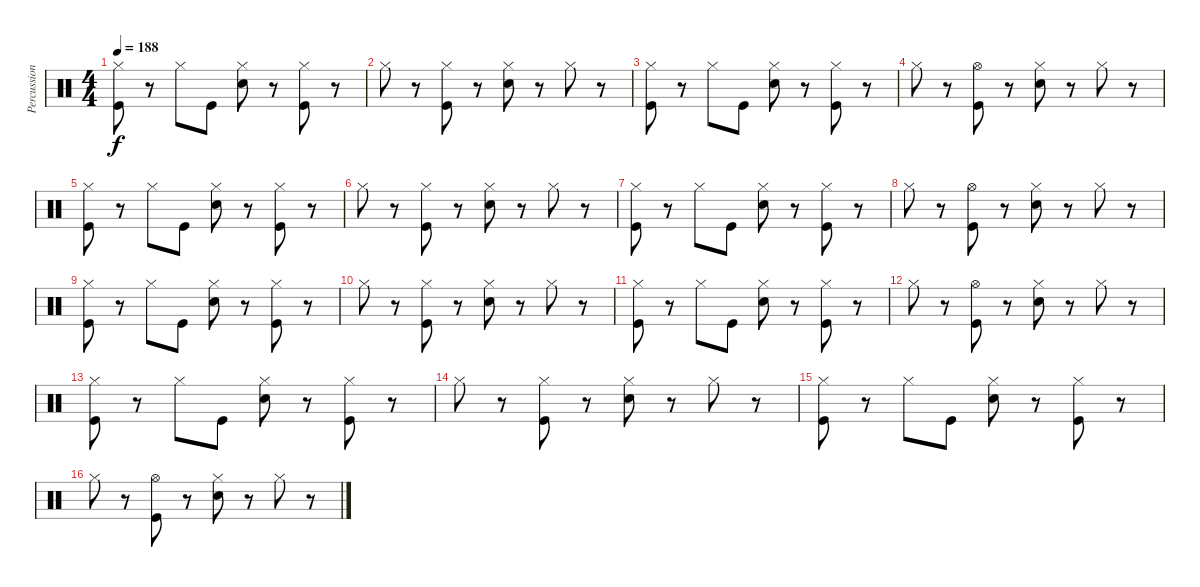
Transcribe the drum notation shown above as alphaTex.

\track ("Percussioni" "Percussion") {instrument percussion}
\staff {score}
\articulation defaults
\ts (4 4)
\tempo 188
\clef neutral
\ks c
("Hi-Hat (closed)" "Kick (hit)").8{dy f} r.8 "Hi-Hat (closed)".8 "Kick (hit)".8 ("Hi-Hat (closed)" "Snare (hit) 2").8 r.8 ("Hi-Hat (closed)" "Kick (hit)").8 r.8 |
"Hi-Hat (closed)".8 r.8 ("Hi-Hat (closed)" "Kick (hit)").8 r.8 ("Hi-Hat (closed)" "Snare (hit) 2").8 r.8 "Hi-Hat (closed)".8 r.8 |
("Hi-Hat (closed)" "Kick (hit)").8 r.8 "Hi-Hat (closed)".8 "Kick (hit)".8 ("Hi-Hat (closed)" "Snare (hit) 2").8 r.8 ("Hi-Hat (closed)" "Kick (hit)").8 r.8 |
"Hi-Hat (closed)".8 r.8 ("Hi-Hat (open)" "Kick (hit)").8 r.8 ("Hi-Hat (closed)" "Snare (hit) 2").8 r.8 "Hi-Hat (closed)".8 r.8 |
("Hi-Hat (closed)" "Kick (hit)").8 r.8 "Hi-Hat (closed)".8 "Kick (hit)".8 ("Hi-Hat (closed)" "Snare (hit) 2").8 r.8 ("Hi-Hat (closed)" "Kick (hit)").8 r.8 |
"Hi-Hat (closed)".8 r.8 ("Hi-Hat (closed)" "Kick (hit)").8 r.8 ("Hi-Hat (closed)" "Snare (hit) 2").8 r.8 "Hi-Hat (closed)".8 r.8 |
("Hi-Hat (closed)" "Kick (hit)").8 r.8 "Hi-Hat (closed)".8 "Kick (hit)".8 ("Hi-Hat (closed)" "Snare (hit) 2").8 r.8 ("Hi-Hat (closed)" "Kick (hit)").8 r.8 |
"Hi-Hat (closed)".8 r.8 ("Hi-Hat (open)" "Kick (hit)").8 r.8 ("Hi-Hat (closed)" "Snare (hit) 2").8 r.8 "Hi-Hat (closed)".8 r.8 |
("Hi-Hat (closed)" "Kick (hit)").8 r.8 "Hi-Hat (closed)".8 "Kick (hit)".8 ("Hi-Hat (closed)" "Snare (hit) 2").8 r.8 ("Hi-Hat (closed)" "Kick (hit)").8 r.8 |
"Hi-Hat (closed)".8 r.8 ("Hi-Hat (closed)" "Kick (hit)").8 r.8 ("Hi-Hat (closed)" "Snare (hit) 2").8 r.8 "Hi-Hat (closed)".8 r.8 |
("Hi-Hat (closed)" "Kick (hit)").8 r.8 "Hi-Hat (closed)".8 "Kick (hit)".8 ("Hi-Hat (closed)" "Snare (hit) 2").8 r.8 ("Hi-Hat (closed)" "Kick (hit)").8 r.8 |
"Hi-Hat (closed)".8 r.8 ("Hi-Hat (open)" "Kick (hit)").8 r.8 ("Hi-Hat (closed)" "Snare (hit) 2").8 r.8 "Hi-Hat (closed)".8 r.8 |
("Hi-Hat (closed)" "Kick (hit)").8 r.8 "Hi-Hat (closed)".8 "Kick (hit)".8 ("Hi-Hat (closed)" "Snare (hit) 2").8 r.8 ("Hi-Hat (closed)" "Kick (hit)").8 r.8 |
"Hi-Hat (closed)".8 r.8 ("Hi-Hat (closed)" "Kick (hit)").8 r.8 ("Hi-Hat (closed)" "Snare (hit) 2").8 r.8 "Hi-Hat (closed)".8 r.8 |
("Hi-Hat (closed)" "Kick (hit)").8 r.8 "Hi-Hat (closed)".8 "Kick (hit)".8 ("Hi-Hat (closed)" "Snare (hit) 2").8 r.8 ("Hi-Hat (closed)" "Kick (hit)").8 r.8 |
"Hi-Hat (closed)".8 r.8 ("Hi-Hat (open)" "Kick (hit)").8 r.8 ("Hi-Hat (closed)" "Snare (hit) 2").8 r.8 "Hi-Hat (closed)".8 r.8
